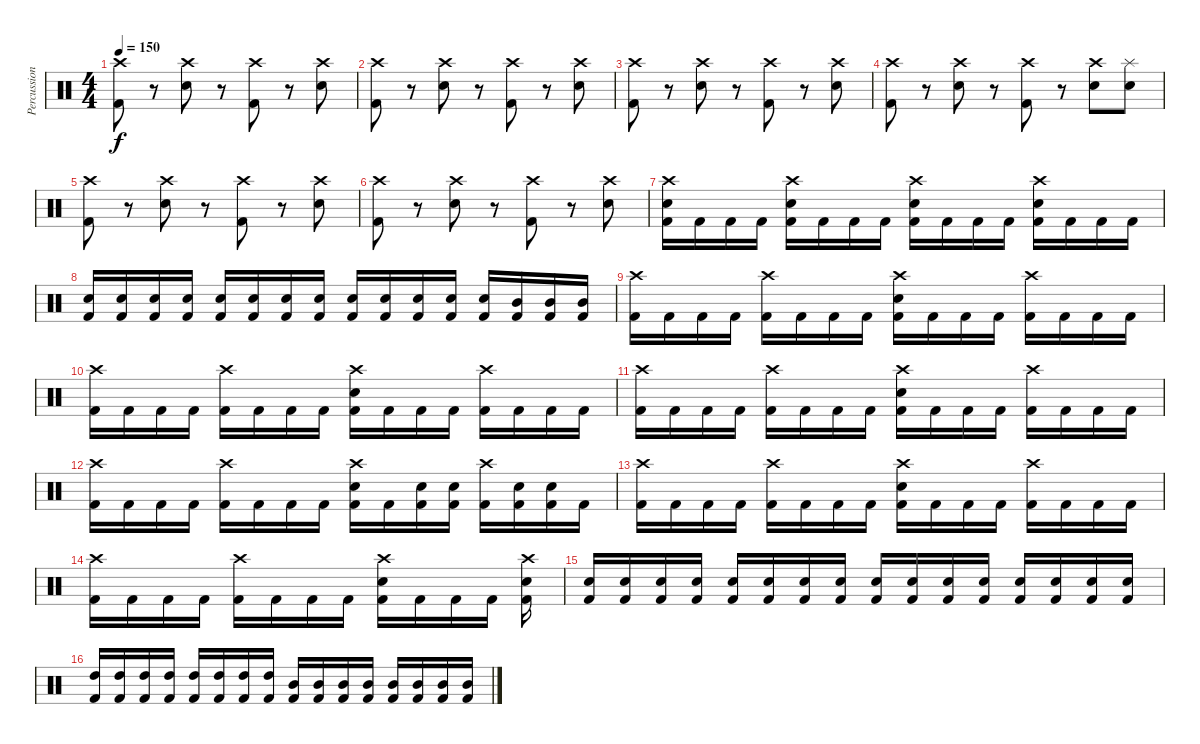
\track ("Percussion" "Percussion") {instrument percussion}
\staff {score}
\articulation defaults
\ts (4 4)
\tempo 150
\clef neutral
\ks c
("Crash high (hit)" "Kick (hit) 2").8{dy f} r.8 ("Crash high (hit)" "Snare (hit) 2").8 r.8 ("Crash high (hit)" "Kick (hit) 2").8 r.8 ("Crash high (hit)" "Snare (hit) 2").8 |
("Crash high (hit)" "Kick (hit) 2").8 r.8 ("Crash high (hit)" "Snare (hit) 2").8 r.8 ("Crash high (hit)" "Kick (hit) 2").8 r.8 ("Crash high (hit)" "Snare (hit) 2").8 |
("Crash high (hit)" "Kick (hit) 2").8 r.8 ("Crash high (hit)" "Snare (hit) 2").8 r.8 ("Crash high (hit)" "Kick (hit) 2").8 r.8 ("Crash high (hit)" "Snare (hit) 2").8 |
("Crash high (hit)" "Kick (hit) 2").8 r.8 ("Crash high (hit)" "Snare (hit) 2").8 r.8 ("Crash high (hit)" "Kick (hit) 2").8 r.8 ("Crash high (hit)" "Snare (hit) 2").8 ("Splash (hit)" "Snare (hit) 2").8 |
("Crash high (hit)" "Kick (hit) 2").8 r.8 ("Crash high (hit)" "Snare (hit) 2").8 r.8 ("Crash high (hit)" "Kick (hit) 2").8 r.8 ("Crash high (hit)" "Snare (hit) 2").8 |
("Crash high (hit)" "Kick (hit) 2").8 r.8 ("Crash high (hit)" "Snare (hit) 2").8 r.8 ("Crash high (hit)" "Kick (hit) 2").8 r.8 ("Crash high (hit)" "Snare (hit) 2").8 |
("Crash high (hit)" "Snare (hit) 2" "Kick (hit) 2").16 "Kick (hit) 2".16 "Kick (hit) 2".16 "Kick (hit) 2".16 ("Crash high (hit)" "Snare (hit) 2" "Kick (hit) 2").16 "Kick (hit) 2".16 "Kick (hit) 2".16 "Kick (hit) 2".16 ("Crash high (hit)" "Snare (hit) 2" "Kick (hit) 2").16 "Kick (hit) 2".16 "Kick (hit) 2".16 "Kick (hit) 2".16 ("Crash high (hit)" "Snare (hit) 2" "Kick (hit) 2").16 "Kick (hit) 2".16 "Kick (hit) 2".16 "Kick (hit) 2".16 |
("Snare (hit) 2" "Kick (hit) 2").16 ("Snare (hit) 2" "Kick (hit) 2").16 ("Snare (hit) 2" "Kick (hit) 2").16 ("Snare (hit) 2" "Kick (hit) 2").16 ("Snare (hit) 2" "Kick (hit) 2").16 ("Snare (hit) 2" "Kick (hit) 2").16 ("Snare (hit) 2" "Kick (hit) 2").16 ("Snare (hit) 2" "Kick (hit) 2").16 ("Snare (hit) 2" "Kick (hit) 2").16 ("Snare (hit) 2" "Kick (hit) 2").16 ("Snare (hit) 2" "Kick (hit) 2").16 ("Snare (hit) 2" "Kick (hit) 2").16 ("Snare (hit) 2" "Kick (hit) 2").16 ("Mid Tom (hit)" "Kick (hit) 2").16 ("Mid Tom (hit)" "Kick (hit) 2").16 ("Mid Tom (hit)" "Kick (hit) 2").16 |
("Crash high (hit)" "Kick (hit) 2").16 "Kick (hit) 2".16 "Kick (hit) 2".16 "Kick (hit) 2".16 ("Crash high (hit)" "Kick (hit) 2").16 "Kick (hit) 2".16 "Kick (hit) 2".16 "Kick (hit) 2".16 ("Crash high (hit)" "Snare (hit) 2" "Kick (hit) 2").16 "Kick (hit) 2".16 "Kick (hit) 2".16 "Kick (hit) 2".16 ("Crash high (hit)" "Kick (hit) 2").16 "Kick (hit) 2".16 "Kick (hit) 2".16 "Kick (hit) 2".16 |
("Crash high (hit)" "Kick (hit) 2").16 "Kick (hit) 2".16 "Kick (hit) 2".16 "Kick (hit) 2".16 ("Crash high (hit)" "Kick (hit) 2").16 "Kick (hit) 2".16 "Kick (hit) 2".16 "Kick (hit) 2".16 ("Crash high (hit)" "Snare (hit) 2" "Kick (hit) 2").16 "Kick (hit) 2".16 "Kick (hit) 2".16 "Kick (hit) 2".16 ("Crash high (hit)" "Kick (hit) 2").16 "Kick (hit) 2".16 "Kick (hit) 2".16 "Kick (hit) 2".16 |
("Crash high (hit)" "Kick (hit) 2").16 "Kick (hit) 2".16 "Kick (hit) 2".16 "Kick (hit) 2".16 ("Crash high (hit)" "Kick (hit) 2").16 "Kick (hit) 2".16 "Kick (hit) 2".16 "Kick (hit) 2".16 ("Crash high (hit)" "Snare (hit) 2" "Kick (hit) 2").16 "Kick (hit) 2".16 "Kick (hit) 2".16 "Kick (hit) 2".16 ("Crash high (hit)" "Kick (hit) 2").16 "Kick (hit) 2".16 "Kick (hit) 2".16 "Kick (hit) 2".16 |
("Crash high (hit)" "Kick (hit) 2").16 "Kick (hit) 2".16 "Kick (hit) 2".16 "Kick (hit) 2".16 ("Crash high (hit)" "Kick (hit) 2").16 "Kick (hit) 2".16 "Kick (hit) 2".16 "Kick (hit) 2".16 ("Crash high (hit)" "Snare (hit) 2" "Kick (hit) 2").16 "Kick (hit) 2".16 ("Snare (hit) 2" "Kick (hit) 2").16 ("Snare (hit) 2" "Kick (hit) 2").16 ("Crash high (hit)" "Kick (hit) 2").16 ("Snare (hit) 2" "Kick (hit) 2").16 ("Snare (hit) 2" "Kick (hit) 2").16 "Kick (hit) 2".16 |
("Crash high (hit)" "Kick (hit) 2").16 "Kick (hit) 2".16 "Kick (hit) 2".16 "Kick (hit) 2".16 ("Crash high (hit)" "Kick (hit) 2").16 "Kick (hit) 2".16 "Kick (hit) 2".16 "Kick (hit) 2".16 ("Crash high (hit)" "Snare (hit) 2" "Kick (hit) 2").16 "Kick (hit) 2".16 "Kick (hit) 2".16 "Kick (hit) 2".16 ("Crash high (hit)" "Kick (hit) 2").16 "Kick (hit) 2".16 "Kick (hit) 2".16 "Kick (hit) 2".16 |
("Crash high (hit)" "Kick (hit) 2").16 "Kick (hit) 2".16 "Kick (hit) 2".16 "Kick (hit) 2".16 ("Crash high (hit)" "Kick (hit) 2").16 "Kick (hit) 2".16 "Kick (hit) 2".16 "Kick (hit) 2".16 ("Crash high (hit)" "Snare (hit) 2" "Kick (hit) 2").16 "Kick (hit) 2".16 "Kick (hit) 2".16 "Kick (hit) 2".16 ("Crash high (hit)" "Snare (hit) 2" "Kick (hit) 2").16 |
("Snare (hit) 2" "Kick (hit) 2").16 ("Snare (hit) 2" "Kick (hit) 2").16 ("Snare (hit) 2" "Kick (hit) 2").16 ("Snare (hit) 2" "Kick (hit) 2").16 ("Snare (hit) 2" "Kick (hit) 2").16 ("Snare (hit) 2" "Kick (hit) 2").16 ("Snare (hit) 2" "Kick (hit) 2").16 ("Snare (hit) 2" "Kick (hit) 2").16 ("Snare (hit) 2" "Kick (hit) 2").16 ("Snare (hit) 2" "Kick (hit) 2").16 ("Snare (hit) 2" "Kick (hit) 2").16 ("Snare (hit) 2" "Kick (hit) 2").16 ("Snare (hit) 2" "Kick (hit) 2").16 ("Snare (hit) 2" "Kick (hit) 2").16 ("Snare (hit) 2" "Kick (hit) 2").16 ("Snare (hit) 2" "Kick (hit) 2").16 |
("High Tom (hit)" "Kick (hit) 2").16 ("High Tom (hit)" "Kick (hit) 2").16 ("High Tom (hit)" "Kick (hit) 2").16 ("High Tom (hit)" "Kick (hit) 2").16 ("High Tom (hit)" "Kick (hit) 2").16 ("High Tom (hit)" "Kick (hit) 2").16 ("High Tom (hit)" "Kick (hit) 2").16 ("High Tom (hit)" "Kick (hit) 2").16 ("Mid Tom (hit)" "Kick (hit) 2").16 ("Mid Tom (hit)" "Kick (hit) 2").16 ("Mid Tom (hit)" "Kick (hit) 2").16 ("Mid Tom (hit)" "Kick (hit) 2").16 ("Mid Tom (hit)" "Kick (hit) 2").16 ("Mid Tom (hit)" "Kick (hit) 2").16 ("Mid Tom (hit)" "Kick (hit) 2").16 ("Mid Tom (hit)" "Kick (hit) 2").16
